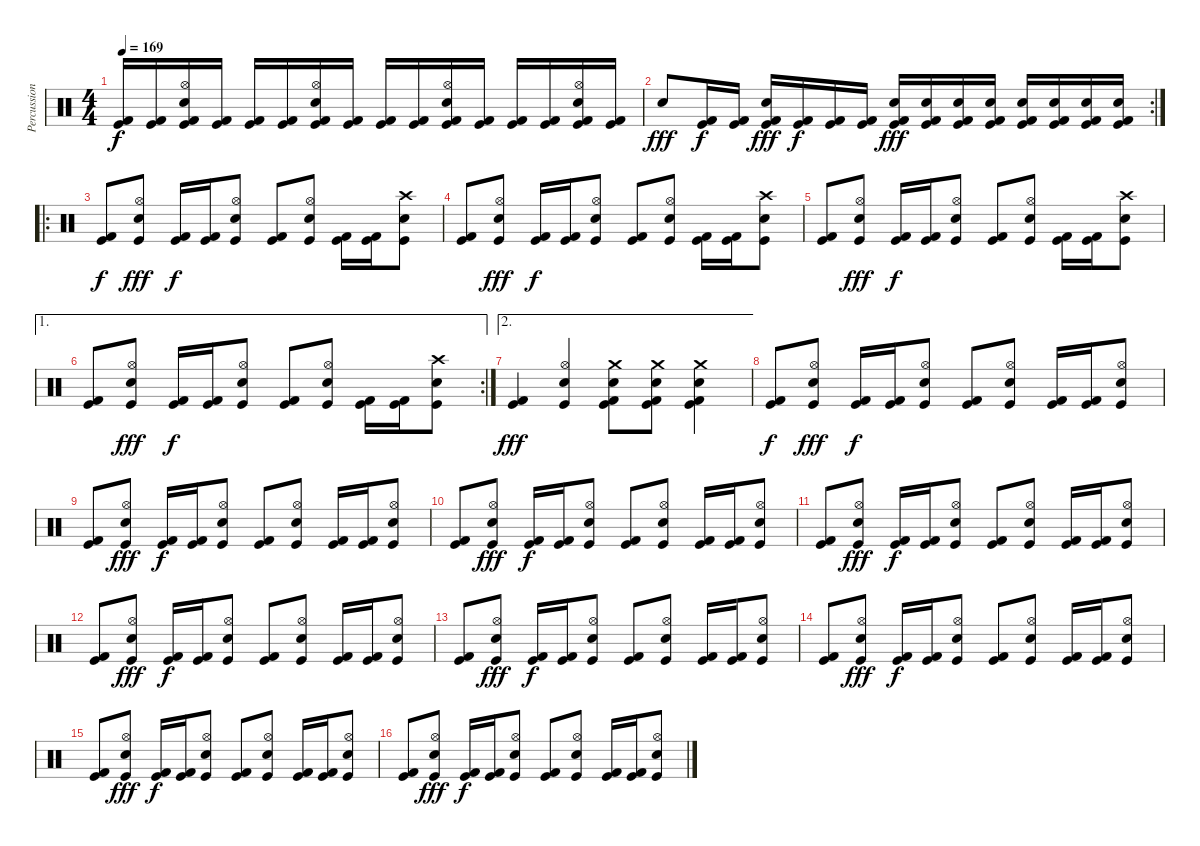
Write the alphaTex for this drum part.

\track ("Percussion" "Percussion") {instrument percussion}
\staff {score}
\articulation defaults
\ts (4 4)
\tempo 169
\clef neutral
\ks c
("Kick (hit) 2" "Kick (hit)").16{dy f} ("Kick (hit) 2" "Kick (hit)").16 ("Hi-Hat (open)" "Electric Snare (hit)" "Kick (hit) 2" "Kick (hit)").16 ("Kick (hit) 2" "Kick (hit)").16 ("Kick (hit) 2" "Kick (hit)").16 ("Kick (hit) 2" "Kick (hit)").16 ("Hi-Hat (open)" "Electric Snare (hit)" "Kick (hit) 2" "Kick (hit)").16 ("Kick (hit) 2" "Kick (hit)").16 ("Kick (hit) 2" "Kick (hit)").16 ("Kick (hit) 2" "Kick (hit)").16 ("Hi-Hat (open)" "Electric Snare (hit)" "Kick (hit) 2" "Kick (hit)").16 ("Kick (hit) 2" "Kick (hit)").16 ("Kick (hit) 2" "Kick (hit)").16 ("Kick (hit) 2" "Kick (hit)").16 ("Hi-Hat (open)" "Electric Snare (hit)" "Kick (hit) 2" "Kick (hit)").16 ("Kick (hit) 2" "Kick (hit)").16 |
\rc 2 "Electric Snare (hit)".8{dy fff}
("Kick (hit) 2" "Kick (hit)").16{dy f} ("Kick (hit) 2" "Kick (hit)").16 ("Kick (hit) 2" "Electric Snare (hit)" "Kick (hit)").16{dy fff} ("Kick (hit) 2" "Kick (hit)").16{dy f} ("Kick (hit) 2" "Kick (hit)").16 ("Kick (hit) 2" "Kick (hit)").16 ("Kick (hit) 2" "Snare (hit) 2" "Kick (hit)").16{dy fff} ("Kick (hit) 2" "Snare (hit) 2" "Kick (hit)").16 ("Kick (hit) 2" "Snare (hit) 2" "Kick (hit)").16 ("Kick (hit) 2" "Snare (hit) 2" "Kick (hit)").16 ("Kick (hit) 2" "Snare (hit) 2" "Kick (hit)").16 ("Kick (hit) 2" "Snare (hit) 2" "Kick (hit)").16 ("Kick (hit) 2" "Snare (hit) 2" "Kick (hit)").16 ("Kick (hit) 2" "Snare (hit) 2" "Kick (hit)").16 |
\ro
("Kick (hit) 2" "Kick (hit)").8{dy f} ("Hi-Hat (open)" "Electric Snare (hit)" "Kick (hit)").8{dy fff} ("Kick (hit) 2" "Kick (hit)").16{dy f} ("Kick (hit) 2" "Kick (hit)").16 ("Hi-Hat (open)" "Electric Snare (hit)" "Kick (hit)").8 ("Kick (hit) 2" "Kick (hit)").8 ("Hi-Hat (open)" "Electric Snare (hit)" "Kick (hit)").8 ("Kick (hit) 2" "Kick (hit)").16 ("Kick (hit) 2" "Kick (hit)").16 ("Crash high (hit)" "Electric Snare (hit)" "Kick (hit)").8 |
("Kick (hit) 2" "Kick (hit)").8 ("Hi-Hat (open)" "Electric Snare (hit)" "Kick (hit)").8{dy fff} ("Kick (hit) 2" "Kick (hit)").16{dy f} ("Kick (hit) 2" "Kick (hit)").16 ("Hi-Hat (open)" "Electric Snare (hit)" "Kick (hit)").8 ("Kick (hit) 2" "Kick (hit)").8 ("Hi-Hat (open)" "Electric Snare (hit)" "Kick (hit)").8 ("Kick (hit) 2" "Kick (hit)").16 ("Kick (hit) 2" "Kick (hit)").16 ("Crash high (hit)" "Electric Snare (hit)" "Kick (hit)").8 |
("Kick (hit) 2" "Kick (hit)").8 ("Hi-Hat (open)" "Electric Snare (hit)" "Kick (hit)").8{dy fff} ("Kick (hit) 2" "Kick (hit)").16{dy f} ("Kick (hit) 2" "Kick (hit)").16 ("Hi-Hat (open)" "Electric Snare (hit)" "Kick (hit)").8 ("Kick (hit) 2" "Kick (hit)").8 ("Hi-Hat (open)" "Electric Snare (hit)" "Kick (hit)").8 ("Kick (hit) 2" "Kick (hit)").16 ("Kick (hit) 2" "Kick (hit)").16 ("Crash high (hit)" "Electric Snare (hit)" "Kick (hit)").8 |
\ae 1
\rc 2
("Kick (hit) 2" "Kick (hit)").8 ("Hi-Hat (open)" "Electric Snare (hit)" "Kick (hit)").8{dy fff} ("Kick (hit) 2" "Kick (hit)").16{dy f} ("Kick (hit) 2" "Kick (hit)").16 ("Hi-Hat (open)" "Electric Snare (hit)" "Kick (hit)").8 ("Kick (hit) 2" "Kick (hit)").8 ("Hi-Hat (open)" "Electric Snare (hit)" "Kick (hit)").8 ("Kick (hit) 2" "Kick (hit)").16 ("Kick (hit) 2" "Kick (hit)").16 ("Crash high (hit)" "Electric Snare (hit)" "Kick (hit)").8 |
\ae 2
("Kick (hit) 2" "Kick (hit)").4{dy fff} ("Hi-Hat (open)" "Electric Snare (hit)" "Kick (hit)").4 ("Crash medium (hit)" "Electric Snare (hit)" "Kick (hit) 2" "Kick (hit)").8 ("Crash medium (hit)" "Electric Snare (hit)" "Kick (hit) 2" "Kick (hit)").8 ("Crash medium (hit)" "Electric Snare (hit)" "Kick (hit) 2" "Kick (hit)").4 |
("Kick (hit) 2" "Kick (hit)").8{dy f} ("Hi-Hat (open)" "Electric Snare (hit)" "Kick (hit)").8{dy fff} ("Kick (hit) 2" "Kick (hit)").16{dy f} ("Kick (hit) 2" "Kick (hit)").16 ("Hi-Hat (open)" "Electric Snare (hit)" "Kick (hit)").8 ("Kick (hit) 2" "Kick (hit)").8 ("Hi-Hat (open)" "Electric Snare (hit)" "Kick (hit)").8 ("Kick (hit) 2" "Kick (hit)").16 ("Kick (hit) 2" "Kick (hit)").16 ("Hi-Hat (open)" "Electric Snare (hit)" "Kick (hit)").8 |
("Kick (hit) 2" "Kick (hit)").8 ("Hi-Hat (open)" "Electric Snare (hit)" "Kick (hit)").8{dy fff} ("Kick (hit) 2" "Kick (hit)").16{dy f} ("Kick (hit) 2" "Kick (hit)").16 ("Hi-Hat (open)" "Electric Snare (hit)" "Kick (hit)").8 ("Kick (hit) 2" "Kick (hit)").8 ("Hi-Hat (open)" "Electric Snare (hit)" "Kick (hit)").8 ("Kick (hit) 2" "Kick (hit)").16 ("Kick (hit) 2" "Kick (hit)").16 ("Hi-Hat (open)" "Electric Snare (hit)" "Kick (hit)").8 |
("Kick (hit) 2" "Kick (hit)").8 ("Hi-Hat (open)" "Electric Snare (hit)" "Kick (hit)").8{dy fff} ("Kick (hit) 2" "Kick (hit)").16{dy f} ("Kick (hit) 2" "Kick (hit)").16 ("Hi-Hat (open)" "Electric Snare (hit)" "Kick (hit)").8 ("Kick (hit) 2" "Kick (hit)").8 ("Hi-Hat (open)" "Electric Snare (hit)" "Kick (hit)").8 ("Kick (hit) 2" "Kick (hit)").16 ("Kick (hit) 2" "Kick (hit)").16 ("Hi-Hat (open)" "Electric Snare (hit)" "Kick (hit)").8 |
("Kick (hit) 2" "Kick (hit)").8 ("Hi-Hat (open)" "Electric Snare (hit)" "Kick (hit)").8{dy fff} ("Kick (hit) 2" "Kick (hit)").16{dy f} ("Kick (hit) 2" "Kick (hit)").16 ("Hi-Hat (open)" "Electric Snare (hit)" "Kick (hit)").8 ("Kick (hit) 2" "Kick (hit)").8 ("Hi-Hat (open)" "Electric Snare (hit)" "Kick (hit)").8 ("Kick (hit) 2" "Kick (hit)").16 ("Kick (hit) 2" "Kick (hit)").16 ("Hi-Hat (open)" "Electric Snare (hit)" "Kick (hit)").8 |
("Kick (hit) 2" "Kick (hit)").8 ("Hi-Hat (open)" "Electric Snare (hit)" "Kick (hit)").8{dy fff} ("Kick (hit) 2" "Kick (hit)").16{dy f} ("Kick (hit) 2" "Kick (hit)").16 ("Hi-Hat (open)" "Electric Snare (hit)" "Kick (hit)").8 ("Kick (hit) 2" "Kick (hit)").8 ("Hi-Hat (open)" "Electric Snare (hit)" "Kick (hit)").8 ("Kick (hit) 2" "Kick (hit)").16 ("Kick (hit) 2" "Kick (hit)").16 ("Hi-Hat (open)" "Electric Snare (hit)" "Kick (hit)").8 |
("Kick (hit) 2" "Kick (hit)").8 ("Hi-Hat (open)" "Electric Snare (hit)" "Kick (hit)").8{dy fff} ("Kick (hit) 2" "Kick (hit)").16{dy f} ("Kick (hit) 2" "Kick (hit)").16 ("Hi-Hat (open)" "Electric Snare (hit)" "Kick (hit)").8 ("Kick (hit) 2" "Kick (hit)").8 ("Hi-Hat (open)" "Electric Snare (hit)" "Kick (hit)").8 ("Kick (hit) 2" "Kick (hit)").16 ("Kick (hit) 2" "Kick (hit)").16 ("Hi-Hat (open)" "Electric Snare (hit)" "Kick (hit)").8 |
("Kick (hit) 2" "Kick (hit)").8 ("Hi-Hat (open)" "Electric Snare (hit)" "Kick (hit)").8{dy fff} ("Kick (hit) 2" "Kick (hit)").16{dy f} ("Kick (hit) 2" "Kick (hit)").16 ("Hi-Hat (open)" "Electric Snare (hit)" "Kick (hit)").8 ("Kick (hit) 2" "Kick (hit)").8 ("Hi-Hat (open)" "Electric Snare (hit)" "Kick (hit)").8 ("Kick (hit) 2" "Kick (hit)").16 ("Kick (hit) 2" "Kick (hit)").16 ("Hi-Hat (open)" "Electric Snare (hit)" "Kick (hit)").8 |
("Kick (hit) 2" "Kick (hit)").8 ("Hi-Hat (open)" "Electric Snare (hit)" "Kick (hit)").8{dy fff} ("Kick (hit) 2" "Kick (hit)").16{dy f} ("Kick (hit) 2" "Kick (hit)").16 ("Hi-Hat (open)" "Electric Snare (hit)" "Kick (hit)").8 ("Kick (hit) 2" "Kick (hit)").8 ("Hi-Hat (open)" "Electric Snare (hit)" "Kick (hit)").8 ("Kick (hit) 2" "Kick (hit)").16 ("Kick (hit) 2" "Kick (hit)").16 ("Hi-Hat (open)" "Electric Snare (hit)" "Kick (hit)").8 |
("Kick (hit) 2" "Kick (hit)").8 ("Hi-Hat (open)" "Electric Snare (hit)" "Kick (hit)").8{dy fff} ("Kick (hit) 2" "Kick (hit)").16{dy f} ("Kick (hit) 2" "Kick (hit)").16 ("Hi-Hat (open)" "Electric Snare (hit)" "Kick (hit)").8 ("Kick (hit) 2" "Kick (hit)").8 ("Hi-Hat (open)" "Electric Snare (hit)" "Kick (hit)").8 ("Kick (hit) 2" "Kick (hit)").16 ("Kick (hit) 2" "Kick (hit)").16 ("Hi-Hat (open)" "Electric Snare (hit)" "Kick (hit)").8
